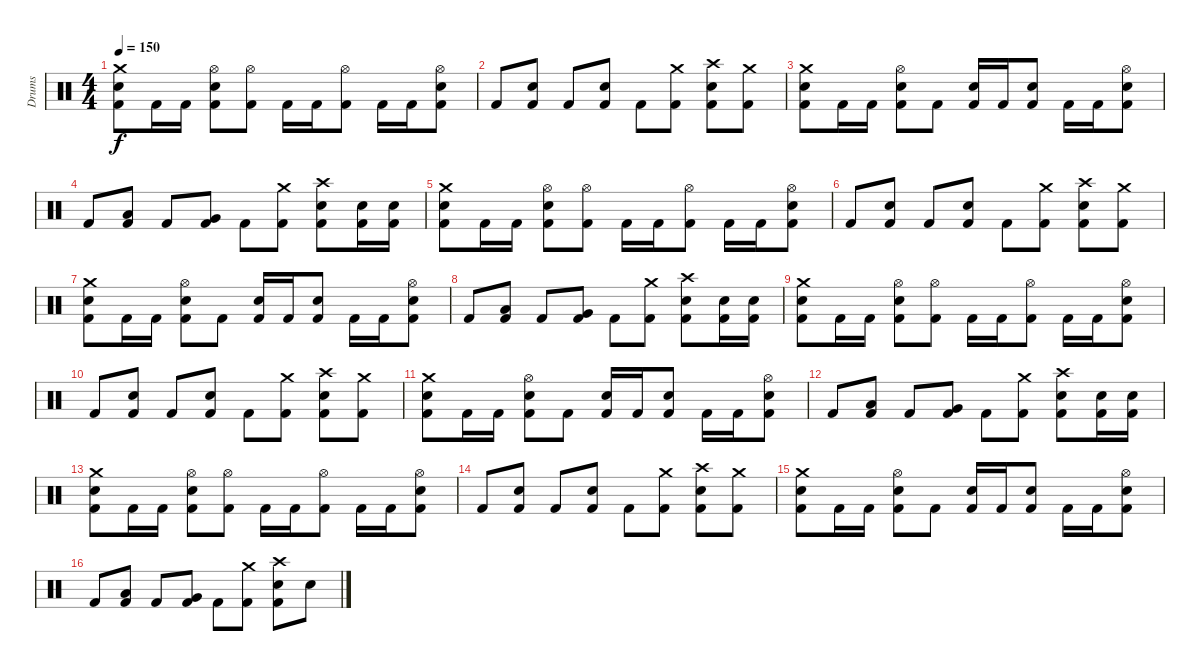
\track ("Drums" "Drums") {instrument percussion}
\staff {score}
\articulation defaults
\ts (4 4)
\tempo 150
\clef neutral
\ks c
("Crash medium (hit)" "Snare (hit) 2" "Kick (hit) 2").8{dy f} "Kick (hit) 2".16 "Kick (hit) 2".16 ("Hi-Hat (open)" "Snare (hit) 2" "Kick (hit) 2").8 ("Hi-Hat (open)" "Kick (hit) 2").8 "Kick (hit) 2".16 "Kick (hit) 2".16 ("Hi-Hat (open)" "Kick (hit) 2").8 "Kick (hit) 2".16 "Kick (hit) 2".16 ("Hi-Hat (open)" "Snare (hit) 2" "Kick (hit) 2").8 |
"Kick (hit) 2".8 ("Snare (hit) 2" "Kick (hit) 2").8 "Kick (hit) 2".8 ("Snare (hit) 2" "Kick (hit) 2").8 "Kick (hit) 2".8 ("Crash medium (hit)" "Kick (hit) 2").8 ("Crash high (hit)" "Snare (hit) 2" "Kick (hit) 2").8 ("Crash medium (hit)" "Kick (hit) 2").8 |
("Crash medium (hit)" "Snare (hit) 2" "Kick (hit) 2").8 "Kick (hit) 2".16 "Kick (hit) 2".16 ("Hi-Hat (open)" "Snare (hit) 2" "Kick (hit) 2").8 "Kick (hit) 2".8 ("Snare (hit) 2" "Kick (hit) 2").16 "Kick (hit) 2".16 ("Snare (hit) 2" "Kick (hit) 2").8 "Kick (hit) 2".16 "Kick (hit) 2".16 ("Hi-Hat (open)" "Snare (hit) 2" "Kick (hit) 2").8 |
"Kick (hit) 2".8 ("Low Tom (hit)" "Kick (hit) 2").8 "Kick (hit) 2".8 ("Very Low Tom (hit)" "Kick (hit) 2").8 "Kick (hit) 2".8 ("Crash medium (hit)" "Kick (hit) 2").8 ("Crash high (hit)" "Snare (hit) 2" "Kick (hit) 2").8 ("Snare (hit) 2" "Kick (hit) 2").16 ("Snare (hit) 2" "Kick (hit) 2").16 |
("Crash medium (hit)" "Snare (hit) 2" "Kick (hit) 2").8 "Kick (hit) 2".16 "Kick (hit) 2".16 ("Hi-Hat (open)" "Snare (hit) 2" "Kick (hit) 2").8 ("Hi-Hat (open)" "Kick (hit) 2").8 "Kick (hit) 2".16 "Kick (hit) 2".16 ("Hi-Hat (open)" "Kick (hit) 2").8 "Kick (hit) 2".16 "Kick (hit) 2".16 ("Hi-Hat (open)" "Snare (hit) 2" "Kick (hit) 2").8 |
"Kick (hit) 2".8 ("Snare (hit) 2" "Kick (hit) 2").8 "Kick (hit) 2".8 ("Snare (hit) 2" "Kick (hit) 2").8 "Kick (hit) 2".8 ("Crash medium (hit)" "Kick (hit) 2").8 ("Crash high (hit)" "Snare (hit) 2" "Kick (hit) 2").8 ("Crash medium (hit)" "Kick (hit) 2").8 |
("Crash medium (hit)" "Snare (hit) 2" "Kick (hit) 2").8 "Kick (hit) 2".16 "Kick (hit) 2".16 ("Hi-Hat (open)" "Snare (hit) 2" "Kick (hit) 2").8 "Kick (hit) 2".8 ("Snare (hit) 2" "Kick (hit) 2").16 "Kick (hit) 2".16 ("Snare (hit) 2" "Kick (hit) 2").8 "Kick (hit) 2".16 "Kick (hit) 2".16 ("Hi-Hat (open)" "Snare (hit) 2" "Kick (hit) 2").8 |
"Kick (hit) 2".8 ("Low Tom (hit)" "Kick (hit) 2").8 "Kick (hit) 2".8 ("Very Low Tom (hit)" "Kick (hit) 2").8 "Kick (hit) 2".8 ("Crash medium (hit)" "Kick (hit) 2").8 ("Crash high (hit)" "Snare (hit) 2" "Kick (hit) 2").8 ("Snare (hit) 2" "Kick (hit) 2").16 ("Snare (hit) 2" "Kick (hit) 2").16 |
("Crash medium (hit)" "Snare (hit) 2" "Kick (hit) 2").8 "Kick (hit) 2".16 "Kick (hit) 2".16 ("Hi-Hat (open)" "Snare (hit) 2" "Kick (hit) 2").8 ("Hi-Hat (open)" "Kick (hit) 2").8 "Kick (hit) 2".16 "Kick (hit) 2".16 ("Hi-Hat (open)" "Kick (hit) 2").8 "Kick (hit) 2".16 "Kick (hit) 2".16 ("Hi-Hat (open)" "Snare (hit) 2" "Kick (hit) 2").8 |
"Kick (hit) 2".8 ("Snare (hit) 2" "Kick (hit) 2").8 "Kick (hit) 2".8 ("Snare (hit) 2" "Kick (hit) 2").8 "Kick (hit) 2".8 ("Crash medium (hit)" "Kick (hit) 2").8 ("Crash high (hit)" "Snare (hit) 2" "Kick (hit) 2").8 ("Crash medium (hit)" "Kick (hit) 2").8 |
("Crash medium (hit)" "Snare (hit) 2" "Kick (hit) 2").8 "Kick (hit) 2".16 "Kick (hit) 2".16 ("Hi-Hat (open)" "Snare (hit) 2" "Kick (hit) 2").8 "Kick (hit) 2".8 ("Snare (hit) 2" "Kick (hit) 2").16 "Kick (hit) 2".16 ("Snare (hit) 2" "Kick (hit) 2").8 "Kick (hit) 2".16 "Kick (hit) 2".16 ("Hi-Hat (open)" "Snare (hit) 2" "Kick (hit) 2").8 |
"Kick (hit) 2".8 ("Low Tom (hit)" "Kick (hit) 2").8 "Kick (hit) 2".8 ("Very Low Tom (hit)" "Kick (hit) 2").8 "Kick (hit) 2".8 ("Crash medium (hit)" "Kick (hit) 2").8 ("Crash high (hit)" "Snare (hit) 2" "Kick (hit) 2").8 ("Snare (hit) 2" "Kick (hit) 2").16 ("Snare (hit) 2" "Kick (hit) 2").16 |
("Crash medium (hit)" "Snare (hit) 2" "Kick (hit) 2").8 "Kick (hit) 2".16 "Kick (hit) 2".16 ("Hi-Hat (open)" "Snare (hit) 2" "Kick (hit) 2").8 ("Hi-Hat (open)" "Kick (hit) 2").8 "Kick (hit) 2".16 "Kick (hit) 2".16 ("Hi-Hat (open)" "Kick (hit) 2").8 "Kick (hit) 2".16 "Kick (hit) 2".16 ("Hi-Hat (open)" "Snare (hit) 2" "Kick (hit) 2").8 |
"Kick (hit) 2".8 ("Snare (hit) 2" "Kick (hit) 2").8 "Kick (hit) 2".8 ("Snare (hit) 2" "Kick (hit) 2").8 "Kick (hit) 2".8 ("Crash medium (hit)" "Kick (hit) 2").8 ("Crash high (hit)" "Snare (hit) 2" "Kick (hit) 2").8 ("Crash medium (hit)" "Kick (hit) 2").8 |
("Crash medium (hit)" "Snare (hit) 2" "Kick (hit) 2").8 "Kick (hit) 2".16 "Kick (hit) 2".16 ("Hi-Hat (open)" "Snare (hit) 2" "Kick (hit) 2").8 "Kick (hit) 2".8 ("Snare (hit) 2" "Kick (hit) 2").16 "Kick (hit) 2".16 ("Snare (hit) 2" "Kick (hit) 2").8 "Kick (hit) 2".16 "Kick (hit) 2".16 ("Hi-Hat (open)" "Snare (hit) 2" "Kick (hit) 2").8 |
"Kick (hit) 2".8 ("Low Tom (hit)" "Kick (hit) 2").8 "Kick (hit) 2".8 ("Very Low Tom (hit)" "Kick (hit) 2").8 "Kick (hit) 2".8 ("Crash medium (hit)" "Kick (hit) 2").8 ("Crash high (hit)" "Snare (hit) 2" "Kick (hit) 2").8 "Snare (hit) 2".8
